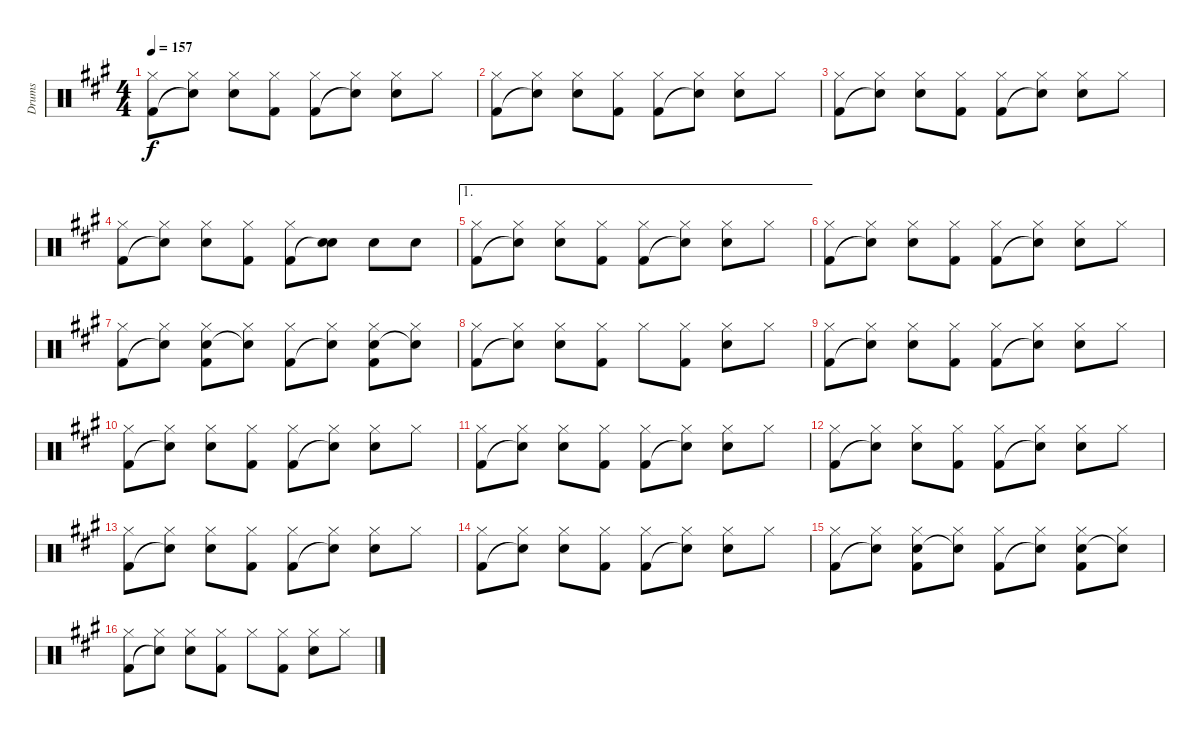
\track ("Drums" "Drums") {instrument percussion}
\staff {score}
\articulation defaults
\ts (4 4)
\tempo 157
\clef neutral
\ks a
("Hi-Hat (closed)" "Kick (hit) 2").8{dy f} ("Hi-Hat (closed)" "Snare (hit)"{t}).8 ("Hi-Hat (closed)" "Snare (hit) 2").8 ("Hi-Hat (closed)" "Kick (hit) 2").8 ("Hi-Hat (closed)" "Kick (hit) 2").8 ("Hi-Hat (closed)" "Snare (hit)"{t}).8 ("Hi-Hat (closed)" "Snare (hit) 2").8 "Hi-Hat (closed)".8 |
("Hi-Hat (closed)" "Kick (hit) 2").8 ("Hi-Hat (closed)" "Snare (hit)"{t}).8 ("Hi-Hat (closed)" "Snare (hit) 2").8 ("Hi-Hat (closed)" "Kick (hit) 2").8 ("Hi-Hat (closed)" "Kick (hit) 2").8 ("Hi-Hat (closed)" "Snare (hit)"{t}).8 ("Hi-Hat (closed)" "Snare (hit) 2").8 "Hi-Hat (closed)".8 |
("Hi-Hat (closed)" "Kick (hit) 2").8 ("Hi-Hat (closed)" "Snare (hit)"{t}).8 ("Hi-Hat (closed)" "Snare (hit) 2").8 ("Hi-Hat (closed)" "Kick (hit) 2").8 ("Hi-Hat (closed)" "Kick (hit) 2").8 ("Hi-Hat (closed)" "Snare (hit)"{t}).8 ("Hi-Hat (closed)" "Snare (hit) 2").8 "Hi-Hat (closed)".8 |
("Hi-Hat (closed)" "Kick (hit) 2").8 ("Hi-Hat (closed)" "Snare (hit)"{t}).8 ("Hi-Hat (closed)" "Snare (hit) 2").8 ("Hi-Hat (closed)" "Kick (hit) 2").8 ("Hi-Hat (closed)" "Kick (hit) 2").8 ("Snare (hit) 2" "Snare (hit)"{t}).8 "Snare (hit) 2".8 "Snare (hit) 2".8 |
\ae 1
("Hi-Hat (closed)" "Kick (hit) 2").8 ("Hi-Hat (closed)" "Snare (hit)"{t}).8 ("Hi-Hat (closed)" "Snare (hit) 2").8 ("Hi-Hat (closed)" "Kick (hit) 2").8 ("Hi-Hat (closed)" "Kick (hit) 2").8 ("Hi-Hat (closed)" "Snare (hit)"{t}).8 ("Hi-Hat (closed)" "Snare (hit) 2").8 "Hi-Hat (closed)".8 |
("Hi-Hat (closed)" "Kick (hit) 2").8 ("Hi-Hat (closed)" "Snare (hit)"{t}).8 ("Hi-Hat (closed)" "Snare (hit) 2").8 ("Hi-Hat (closed)" "Kick (hit) 2").8 ("Hi-Hat (closed)" "Kick (hit) 2").8 ("Hi-Hat (closed)" "Snare (hit)"{t}).8 ("Hi-Hat (closed)" "Snare (hit) 2").8 "Hi-Hat (closed)".8 |
("Hi-Hat (closed)" "Kick (hit) 2").8 ("Hi-Hat (closed)" "Snare (hit)"{t}).8 ("Hi-Hat (closed)" "Snare (hit) 2" "Kick (hit) 2").8 ("Hi-Hat (closed)" "Snare (hit)"{t}).8 ("Hi-Hat (closed)" "Kick (hit) 2").8 ("Hi-Hat (closed)" "Snare (hit)"{t}).8 ("Hi-Hat (closed)" "Snare (hit) 2" "Kick (hit) 2").8 ("Hi-Hat (closed)" "Snare (hit)"{t}).8 |
("Hi-Hat (closed)" "Kick (hit) 2").8 ("Hi-Hat (closed)" "Snare (hit)"{t}).8 ("Hi-Hat (closed)" "Snare (hit) 2").8 ("Hi-Hat (closed)" "Kick (hit) 2").8 "Hi-Hat (closed)".8 ("Hi-Hat (closed)" "Kick (hit) 2").8 ("Hi-Hat (closed)" "Snare (hit) 2").8 "Hi-Hat (closed)".8 |
("Hi-Hat (closed)" "Kick (hit) 2").8 ("Hi-Hat (closed)" "Snare (hit)"{t}).8 ("Hi-Hat (closed)" "Snare (hit) 2").8 ("Hi-Hat (closed)" "Kick (hit) 2").8 ("Hi-Hat (closed)" "Kick (hit) 2").8 ("Hi-Hat (closed)" "Snare (hit)"{t}).8 ("Hi-Hat (closed)" "Snare (hit) 2").8 "Hi-Hat (closed)".8 |
("Hi-Hat (closed)" "Kick (hit) 2").8 ("Hi-Hat (closed)" "Snare (hit)"{t}).8 ("Hi-Hat (closed)" "Snare (hit) 2").8 ("Hi-Hat (closed)" "Kick (hit) 2").8 ("Hi-Hat (closed)" "Kick (hit) 2").8 ("Hi-Hat (closed)" "Snare (hit)"{t}).8 ("Hi-Hat (closed)" "Snare (hit) 2").8 "Hi-Hat (closed)".8 |
("Hi-Hat (closed)" "Kick (hit) 2").8 ("Hi-Hat (closed)" "Snare (hit)"{t}).8 ("Hi-Hat (closed)" "Snare (hit) 2").8 ("Hi-Hat (closed)" "Kick (hit) 2").8 ("Hi-Hat (closed)" "Kick (hit) 2").8 ("Hi-Hat (closed)" "Snare (hit)"{t}).8 ("Hi-Hat (closed)" "Snare (hit) 2").8 "Hi-Hat (closed)".8 |
("Hi-Hat (closed)" "Kick (hit) 2").8 ("Hi-Hat (closed)" "Snare (hit)"{t}).8 ("Hi-Hat (closed)" "Snare (hit) 2").8 ("Hi-Hat (closed)" "Kick (hit) 2").8 ("Hi-Hat (closed)" "Kick (hit) 2").8 ("Hi-Hat (closed)" "Snare (hit)"{t}).8 ("Hi-Hat (closed)" "Snare (hit) 2").8 "Hi-Hat (closed)".8 |
("Hi-Hat (closed)" "Kick (hit) 2").8 ("Hi-Hat (closed)" "Snare (hit)"{t}).8 ("Hi-Hat (closed)" "Snare (hit) 2").8 ("Hi-Hat (closed)" "Kick (hit) 2").8 ("Hi-Hat (closed)" "Kick (hit) 2").8 ("Hi-Hat (closed)" "Snare (hit)"{t}).8 ("Hi-Hat (closed)" "Snare (hit) 2").8 "Hi-Hat (closed)".8 |
("Hi-Hat (closed)" "Kick (hit) 2").8 ("Hi-Hat (closed)" "Snare (hit)"{t}).8 ("Hi-Hat (closed)" "Snare (hit) 2").8 ("Hi-Hat (closed)" "Kick (hit) 2").8 ("Hi-Hat (closed)" "Kick (hit) 2").8 ("Hi-Hat (closed)" "Snare (hit)"{t}).8 ("Hi-Hat (closed)" "Snare (hit) 2").8 "Hi-Hat (closed)".8 |
("Hi-Hat (closed)" "Kick (hit) 2").8 ("Hi-Hat (closed)" "Snare (hit)"{t}).8 ("Hi-Hat (closed)" "Snare (hit) 2" "Kick (hit) 2").8 ("Hi-Hat (closed)" "Snare (hit)"{t}).8 ("Hi-Hat (closed)" "Kick (hit) 2").8 ("Hi-Hat (closed)" "Snare (hit)"{t}).8 ("Hi-Hat (closed)" "Snare (hit) 2" "Kick (hit) 2").8 ("Hi-Hat (closed)" "Snare (hit)"{t}).8 |
("Hi-Hat (closed)" "Kick (hit) 2").8 ("Hi-Hat (closed)" "Snare (hit)"{t}).8 ("Hi-Hat (closed)" "Snare (hit) 2").8 ("Hi-Hat (closed)" "Kick (hit) 2").8 "Hi-Hat (closed)".8 ("Hi-Hat (closed)" "Kick (hit) 2").8 ("Hi-Hat (closed)" "Snare (hit) 2").8 "Hi-Hat (closed)".8
